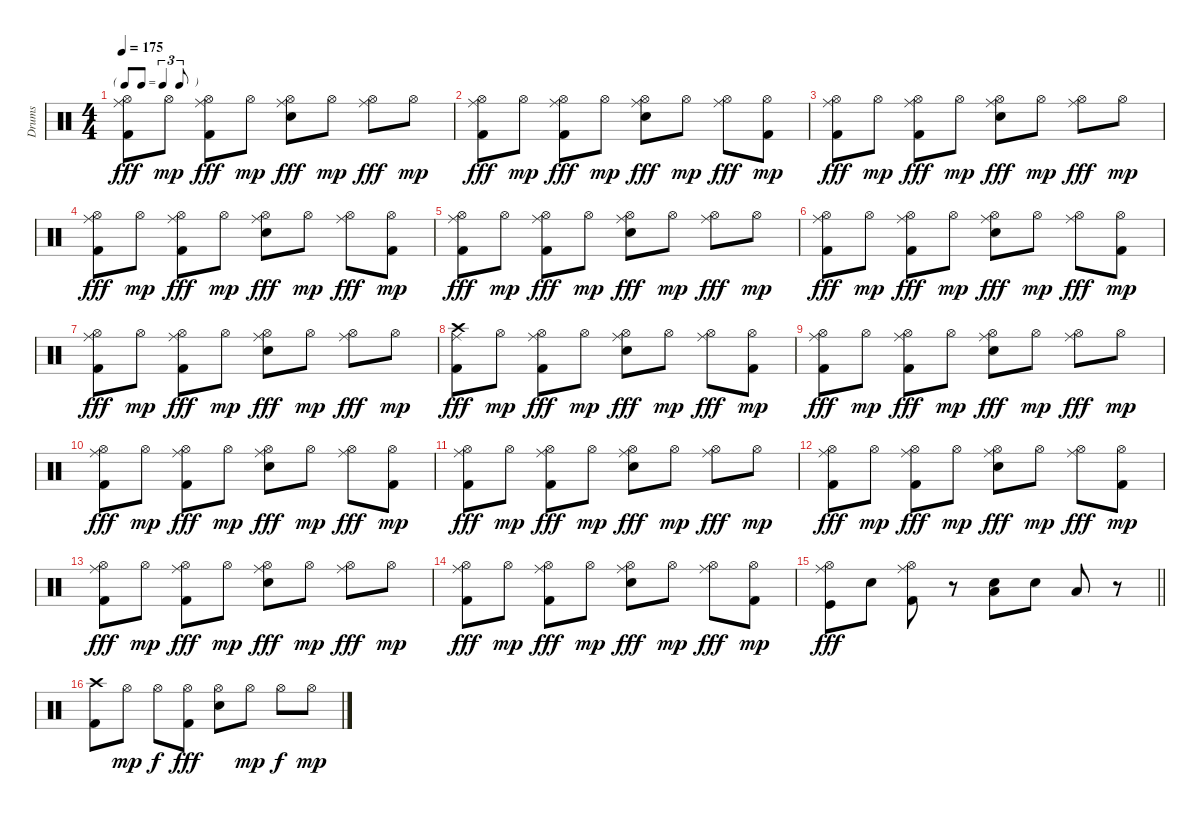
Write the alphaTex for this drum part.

\track ("Drums" "Drums") {instrument percussion}
\staff {score}
\articulation defaults
\ts (4 4)
\tf triplet8th
\tempo 175
\clef neutral
\ks c
("Hi-Hat (open)" "Ride (middle)" "Kick (hit) 2").8{dy fff} "Hi-Hat (open)".8{dy mp} ("Hi-Hat (open)" "Ride (middle)" "Kick (hit) 2").8{dy fff} "Hi-Hat (open)".8{dy mp} ("Hi-Hat (open)" "Ride (middle)" "Electric Snare (hit)").8{dy fff} "Hi-Hat (open)".8{dy mp} ("Hi-Hat (open)" "Ride (middle)").8{dy fff} "Hi-Hat (open)".8{dy mp} |
("Hi-Hat (open)" "Ride (middle)" "Kick (hit) 2").8{dy fff} "Hi-Hat (open)".8{dy mp} ("Hi-Hat (open)" "Ride (middle)" "Kick (hit) 2").8{dy fff} "Hi-Hat (open)".8{dy mp} ("Hi-Hat (open)" "Ride (middle)" "Electric Snare (hit)").8{dy fff} "Hi-Hat (open)".8{dy mp} ("Hi-Hat (open)" "Ride (middle)").8{dy fff} ("Hi-Hat (open)" "Kick (hit) 2").8{dy mp} |
("Hi-Hat (open)" "Ride (middle)" "Kick (hit) 2").8{dy fff} "Hi-Hat (open)".8{dy mp} ("Hi-Hat (open)" "Ride (middle)" "Kick (hit) 2").8{dy fff} "Hi-Hat (open)".8{dy mp} ("Hi-Hat (open)" "Ride (middle)" "Electric Snare (hit)").8{dy fff} "Hi-Hat (open)".8{dy mp} ("Hi-Hat (open)" "Ride (middle)").8{dy fff} "Hi-Hat (open)".8{dy mp} |
("Hi-Hat (open)" "Ride (middle)" "Kick (hit) 2").8{dy fff} "Hi-Hat (open)".8{dy mp} ("Hi-Hat (open)" "Ride (middle)" "Kick (hit) 2").8{dy fff} "Hi-Hat (open)".8{dy mp} ("Hi-Hat (open)" "Ride (middle)" "Electric Snare (hit)").8{dy fff} "Hi-Hat (open)".8{dy mp} ("Hi-Hat (open)" "Ride (middle)").8{dy fff} ("Hi-Hat (open)" "Kick (hit) 2").8{dy mp} |
("Hi-Hat (open)" "Ride (middle)" "Kick (hit) 2").8{dy fff} "Hi-Hat (open)".8{dy mp} ("Hi-Hat (open)" "Ride (middle)" "Kick (hit) 2").8{dy fff} "Hi-Hat (open)".8{dy mp} ("Hi-Hat (open)" "Ride (middle)" "Electric Snare (hit)").8{dy fff} "Hi-Hat (open)".8{dy mp} ("Hi-Hat (open)" "Ride (middle)").8{dy fff} "Hi-Hat (open)".8{dy mp} |
("Hi-Hat (open)" "Ride (middle)" "Kick (hit) 2").8{dy fff} "Hi-Hat (open)".8{dy mp} ("Hi-Hat (open)" "Ride (middle)" "Kick (hit) 2").8{dy fff} "Hi-Hat (open)".8{dy mp} ("Hi-Hat (open)" "Ride (middle)" "Electric Snare (hit)").8{dy fff} "Hi-Hat (open)".8{dy mp} ("Hi-Hat (open)" "Ride (middle)").8{dy fff} ("Hi-Hat (open)" "Kick (hit) 2").8{dy mp} |
("Hi-Hat (open)" "Ride (middle)" "Kick (hit) 2").8{dy fff} "Hi-Hat (open)".8{dy mp} ("Hi-Hat (open)" "Ride (middle)" "Kick (hit) 2").8{dy fff} "Hi-Hat (open)".8{dy mp} ("Hi-Hat (open)" "Ride (middle)" "Electric Snare (hit)").8{dy fff} "Hi-Hat (open)".8{dy mp} ("Hi-Hat (open)" "Ride (middle)").8{dy fff} "Hi-Hat (open)".8{dy mp} |
("Crash high (hit)" "Ride (middle)" "Kick (hit) 2").8{dy fff} "Hi-Hat (open)".8{dy mp} ("Hi-Hat (open)" "Ride (middle)" "Kick (hit) 2").8{dy fff} "Hi-Hat (open)".8{dy mp} ("Hi-Hat (open)" "Ride (middle)" "Electric Snare (hit)").8{dy fff} "Hi-Hat (open)".8{dy mp} ("Hi-Hat (open)" "Ride (middle)").8{dy fff} ("Hi-Hat (open)" "Kick (hit) 2").8{dy mp} |
("Hi-Hat (open)" "Ride (middle)" "Kick (hit) 2").8{dy fff} "Hi-Hat (open)".8{dy mp} ("Hi-Hat (open)" "Ride (middle)" "Kick (hit) 2").8{dy fff} "Hi-Hat (open)".8{dy mp} ("Hi-Hat (open)" "Ride (middle)" "Electric Snare (hit)").8{dy fff} "Hi-Hat (open)".8{dy mp} ("Hi-Hat (open)" "Ride (middle)").8{dy fff} "Hi-Hat (open)".8{dy mp} |
("Hi-Hat (open)" "Ride (middle)" "Kick (hit) 2").8{dy fff} "Hi-Hat (open)".8{dy mp} ("Hi-Hat (open)" "Ride (middle)" "Kick (hit) 2").8{dy fff} "Hi-Hat (open)".8{dy mp} ("Hi-Hat (open)" "Ride (middle)" "Electric Snare (hit)").8{dy fff} "Hi-Hat (open)".8{dy mp} ("Hi-Hat (open)" "Ride (middle)").8{dy fff} ("Hi-Hat (open)" "Kick (hit) 2").8{dy mp} |
("Hi-Hat (open)" "Ride (middle)" "Kick (hit) 2").8{dy fff} "Hi-Hat (open)".8{dy mp} ("Hi-Hat (open)" "Ride (middle)" "Kick (hit) 2").8{dy fff} "Hi-Hat (open)".8{dy mp} ("Hi-Hat (open)" "Ride (middle)" "Electric Snare (hit)").8{dy fff} "Hi-Hat (open)".8{dy mp} ("Hi-Hat (open)" "Ride (middle)").8{dy fff} "Hi-Hat (open)".8{dy mp} |
("Hi-Hat (open)" "Ride (middle)" "Kick (hit) 2").8{dy fff} "Hi-Hat (open)".8{dy mp} ("Hi-Hat (open)" "Ride (middle)" "Kick (hit) 2").8{dy fff} "Hi-Hat (open)".8{dy mp} ("Hi-Hat (open)" "Ride (middle)" "Electric Snare (hit)").8{dy fff} "Hi-Hat (open)".8{dy mp} ("Hi-Hat (open)" "Ride (middle)").8{dy fff} ("Hi-Hat (open)" "Kick (hit) 2").8{dy mp} |
("Hi-Hat (open)" "Ride (middle)" "Kick (hit) 2").8{dy fff} "Hi-Hat (open)".8{dy mp} ("Hi-Hat (open)" "Ride (middle)" "Kick (hit) 2").8{dy fff} "Hi-Hat (open)".8{dy mp} ("Hi-Hat (open)" "Ride (middle)" "Electric Snare (hit)").8{dy fff} "Hi-Hat (open)".8{dy mp} ("Hi-Hat (open)" "Ride (middle)").8{dy fff} "Hi-Hat (open)".8{dy mp} |
("Hi-Hat (open)" "Ride (middle)" "Kick (hit) 2").8{dy fff} "Hi-Hat (open)".8{dy mp} ("Hi-Hat (open)" "Ride (middle)" "Kick (hit) 2").8{dy fff} "Hi-Hat (open)".8{dy mp} ("Hi-Hat (open)" "Ride (middle)" "Electric Snare (hit)").8{dy fff} "Hi-Hat (open)".8{dy mp} ("Hi-Hat (open)" "Ride (middle)").8{dy fff} ("Hi-Hat (open)" "Kick (hit) 2").8{dy mp} |
\barLineRight lightlight
("Hi-Hat (open)" "Ride (middle)" "Kick (hit)").8{dy fff} "Electric Snare (hit)".8 ("Hi-Hat (open)" "Ride (middle)" "Kick (hit) 2").8 r.8 ("Electric Snare (hit)" "Low Tom (hit)").8 "Electric Snare (hit)".8 "Low Tom (hit)".8 r.8 |
("Crash high (hit)" "Kick (hit) 2").8 "Hi-Hat (open)".8{dy mp} "Hi-Hat (open)".8{dy f} ("Hi-Hat (open)" "Kick (hit) 2").8{dy fff} ("Hi-Hat (open)" "Electric Snare (hit)").8 "Hi-Hat (open)".8{dy mp} "Hi-Hat (open)".8{dy f} "Hi-Hat (open)".8{dy mp}
